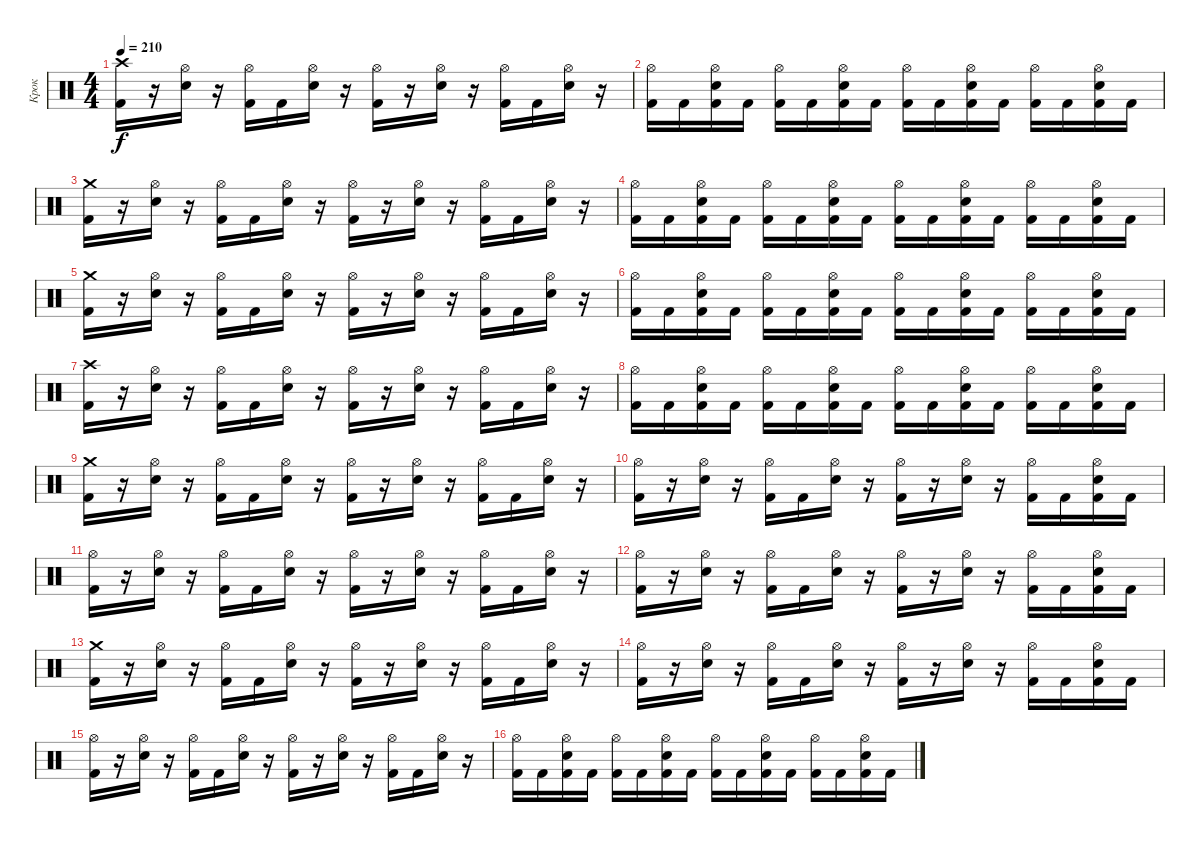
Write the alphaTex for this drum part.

\track ("Крок" "Крок") {instrument percussion}
\staff {score}
\articulation defaults
\ts (4 4)
\tempo 210
\clef neutral
\ks c
("Crash high (hit)" "Kick (hit) 2").16{dy f} r.16 ("Hi-Hat (open)" "Electric Snare (hit)").16 r.16 ("Hi-Hat (open)" "Kick (hit) 2").16 "Kick (hit) 2".16 ("Hi-Hat (open)" "Electric Snare (hit)").16 r.16 ("Hi-Hat (open)" "Kick (hit) 2").16 r.16 ("Hi-Hat (open)" "Electric Snare (hit)").16 r.16 ("Hi-Hat (open)" "Kick (hit) 2").16 "Kick (hit) 2".16 ("Hi-Hat (open)" "Electric Snare (hit)").16 r.16 |
("Hi-Hat (open)" "Kick (hit) 2").16 "Kick (hit) 2".16 ("Hi-Hat (open)" "Electric Snare (hit)" "Kick (hit) 2").16 "Kick (hit) 2".16 ("Hi-Hat (open)" "Kick (hit) 2").16 "Kick (hit) 2".16 ("Hi-Hat (open)" "Electric Snare (hit)" "Kick (hit) 2").16 "Kick (hit) 2".16 ("Hi-Hat (open)" "Kick (hit) 2").16 "Kick (hit) 2".16 ("Hi-Hat (open)" "Electric Snare (hit)" "Kick (hit) 2").16 "Kick (hit) 2".16 ("Hi-Hat (open)" "Kick (hit) 2").16 "Kick (hit) 2".16 ("Hi-Hat (open)" "Electric Snare (hit)" "Kick (hit) 2").16 "Kick (hit) 2".16 |
("Crash medium (hit)" "Kick (hit) 2").16 r.16 ("Hi-Hat (open)" "Electric Snare (hit)").16 r.16 ("Hi-Hat (open)" "Kick (hit) 2").16 "Kick (hit) 2".16 ("Hi-Hat (open)" "Electric Snare (hit)").16 r.16 ("Hi-Hat (open)" "Kick (hit) 2").16 r.16 ("Hi-Hat (open)" "Electric Snare (hit)").16 r.16 ("Hi-Hat (open)" "Kick (hit) 2").16 "Kick (hit) 2".16 ("Hi-Hat (open)" "Electric Snare (hit)").16 r.16 |
("Hi-Hat (open)" "Kick (hit) 2").16 "Kick (hit) 2".16 ("Hi-Hat (open)" "Electric Snare (hit)" "Kick (hit) 2").16 "Kick (hit) 2".16 ("Hi-Hat (open)" "Kick (hit) 2").16 "Kick (hit) 2".16 ("Hi-Hat (open)" "Electric Snare (hit)" "Kick (hit) 2").16 "Kick (hit) 2".16 ("Hi-Hat (open)" "Kick (hit) 2").16 "Kick (hit) 2".16 ("Hi-Hat (open)" "Electric Snare (hit)" "Kick (hit) 2").16 "Kick (hit) 2".16 ("Hi-Hat (open)" "Kick (hit) 2").16 "Kick (hit) 2".16 ("Hi-Hat (open)" "Electric Snare (hit)" "Kick (hit) 2").16 "Kick (hit) 2".16 |
("Crash medium (hit)" "Kick (hit) 2").16 r.16 ("Hi-Hat (open)" "Electric Snare (hit)").16 r.16 ("Hi-Hat (open)" "Kick (hit) 2").16 "Kick (hit) 2".16 ("Hi-Hat (open)" "Electric Snare (hit)").16 r.16 ("Hi-Hat (open)" "Kick (hit) 2").16 r.16 ("Hi-Hat (open)" "Electric Snare (hit)").16 r.16 ("Hi-Hat (open)" "Kick (hit) 2").16 "Kick (hit) 2".16 ("Hi-Hat (open)" "Electric Snare (hit)").16 r.16 |
("Hi-Hat (open)" "Kick (hit) 2").16 "Kick (hit) 2".16 ("Hi-Hat (open)" "Electric Snare (hit)" "Kick (hit) 2").16 "Kick (hit) 2".16 ("Hi-Hat (open)" "Kick (hit) 2").16 "Kick (hit) 2".16 ("Hi-Hat (open)" "Electric Snare (hit)" "Kick (hit) 2").16 "Kick (hit) 2".16 ("Hi-Hat (open)" "Kick (hit) 2").16 "Kick (hit) 2".16 ("Hi-Hat (open)" "Electric Snare (hit)" "Kick (hit) 2").16 "Kick (hit) 2".16 ("Hi-Hat (open)" "Kick (hit) 2").16 "Kick (hit) 2".16 ("Hi-Hat (open)" "Electric Snare (hit)" "Kick (hit) 2").16 "Kick (hit) 2".16 |
("Crash high (hit)" "Kick (hit) 2").16 r.16 ("Hi-Hat (open)" "Electric Snare (hit)").16 r.16 ("Hi-Hat (open)" "Kick (hit) 2").16 "Kick (hit) 2".16 ("Hi-Hat (open)" "Electric Snare (hit)").16 r.16 ("Hi-Hat (open)" "Kick (hit) 2").16 r.16 ("Hi-Hat (open)" "Electric Snare (hit)").16 r.16 ("Hi-Hat (open)" "Kick (hit) 2").16 "Kick (hit) 2".16 ("Hi-Hat (open)" "Electric Snare (hit)").16 r.16 |
("Hi-Hat (open)" "Kick (hit) 2").16 "Kick (hit) 2".16 ("Hi-Hat (open)" "Electric Snare (hit)" "Kick (hit) 2").16 "Kick (hit) 2".16 ("Hi-Hat (open)" "Kick (hit) 2").16 "Kick (hit) 2".16 ("Hi-Hat (open)" "Electric Snare (hit)" "Kick (hit) 2").16 "Kick (hit) 2".16 ("Hi-Hat (open)" "Kick (hit) 2").16 "Kick (hit) 2".16 ("Hi-Hat (open)" "Electric Snare (hit)" "Kick (hit) 2").16 "Kick (hit) 2".16 ("Hi-Hat (open)" "Kick (hit) 2").16 "Kick (hit) 2".16 ("Hi-Hat (open)" "Electric Snare (hit)" "Kick (hit) 2").16 "Kick (hit) 2".16 |
("Crash medium (hit)" "Kick (hit) 2").16 r.16 ("Hi-Hat (open)" "Electric Snare (hit)").16 r.16 ("Hi-Hat (open)" "Kick (hit) 2").16 "Kick (hit) 2".16 ("Hi-Hat (open)" "Electric Snare (hit)").16 r.16 ("Hi-Hat (open)" "Kick (hit) 2").16 r.16 ("Hi-Hat (open)" "Electric Snare (hit)").16 r.16 ("Hi-Hat (open)" "Kick (hit) 2").16 "Kick (hit) 2".16 ("Hi-Hat (open)" "Electric Snare (hit)").16 r.16 |
("Hi-Hat (open)" "Kick (hit) 2").16 r.16 ("Hi-Hat (open)" "Electric Snare (hit)").16 r.16 ("Hi-Hat (open)" "Kick (hit) 2").16 "Kick (hit) 2".16 ("Hi-Hat (open)" "Electric Snare (hit)").16 r.16 ("Hi-Hat (open)" "Kick (hit) 2").16 r.16 ("Hi-Hat (open)" "Electric Snare (hit)").16 r.16 ("Hi-Hat (open)" "Kick (hit) 2").16 "Kick (hit) 2".16 ("Hi-Hat (open)" "Electric Snare (hit)" "Kick (hit) 2").16 "Kick (hit) 2".16 |
("Hi-Hat (open)" "Kick (hit) 2").16 r.16 ("Hi-Hat (open)" "Electric Snare (hit)").16 r.16 ("Hi-Hat (open)" "Kick (hit) 2").16 "Kick (hit) 2".16 ("Hi-Hat (open)" "Electric Snare (hit)").16 r.16 ("Hi-Hat (open)" "Kick (hit) 2").16 r.16 ("Hi-Hat (open)" "Electric Snare (hit)").16 r.16 ("Hi-Hat (open)" "Kick (hit) 2").16 "Kick (hit) 2".16 ("Hi-Hat (open)" "Electric Snare (hit)").16 r.16 |
("Hi-Hat (open)" "Kick (hit) 2").16 r.16 ("Hi-Hat (open)" "Electric Snare (hit)").16 r.16 ("Hi-Hat (open)" "Kick (hit) 2").16 "Kick (hit) 2".16 ("Hi-Hat (open)" "Electric Snare (hit)").16 r.16 ("Hi-Hat (open)" "Kick (hit) 2").16 r.16 ("Hi-Hat (open)" "Electric Snare (hit)").16 r.16 ("Hi-Hat (open)" "Kick (hit) 2").16 "Kick (hit) 2".16 ("Hi-Hat (open)" "Electric Snare (hit)" "Kick (hit) 2").16 "Kick (hit) 2".16 |
("Crash medium (hit)" "Kick (hit) 2").16 r.16 ("Hi-Hat (open)" "Electric Snare (hit)").16 r.16 ("Hi-Hat (open)" "Kick (hit) 2").16 "Kick (hit) 2".16 ("Hi-Hat (open)" "Electric Snare (hit)").16 r.16 ("Hi-Hat (open)" "Kick (hit) 2").16 r.16 ("Hi-Hat (open)" "Electric Snare (hit)").16 r.16 ("Hi-Hat (open)" "Kick (hit) 2").16 "Kick (hit) 2".16 ("Hi-Hat (open)" "Electric Snare (hit)").16 r.16 |
("Hi-Hat (open)" "Kick (hit) 2").16 r.16 ("Hi-Hat (open)" "Electric Snare (hit)").16 r.16 ("Hi-Hat (open)" "Kick (hit) 2").16 "Kick (hit) 2".16 ("Hi-Hat (open)" "Electric Snare (hit)").16 r.16 ("Hi-Hat (open)" "Kick (hit) 2").16 r.16 ("Hi-Hat (open)" "Electric Snare (hit)").16 r.16 ("Hi-Hat (open)" "Kick (hit) 2").16 "Kick (hit) 2".16 ("Hi-Hat (open)" "Electric Snare (hit)" "Kick (hit) 2").16 "Kick (hit) 2".16 |
("Hi-Hat (open)" "Kick (hit) 2").16 r.16 ("Hi-Hat (open)" "Electric Snare (hit)").16 r.16 ("Hi-Hat (open)" "Kick (hit) 2").16 "Kick (hit) 2".16 ("Hi-Hat (open)" "Electric Snare (hit)").16 r.16 ("Hi-Hat (open)" "Kick (hit) 2").16 r.16 ("Hi-Hat (open)" "Electric Snare (hit)").16 r.16 ("Hi-Hat (open)" "Kick (hit) 2").16 "Kick (hit) 2".16 ("Hi-Hat (open)" "Electric Snare (hit)").16 r.16 |
("Hi-Hat (open)" "Kick (hit) 2").16 "Kick (hit) 2".16 ("Hi-Hat (open)" "Electric Snare (hit)" "Kick (hit) 2").16 "Kick (hit) 2".16 ("Hi-Hat (open)" "Kick (hit) 2").16 "Kick (hit) 2".16 ("Hi-Hat (open)" "Electric Snare (hit)" "Kick (hit) 2").16 "Kick (hit) 2".16 ("Hi-Hat (open)" "Kick (hit) 2").16 "Kick (hit) 2".16 ("Hi-Hat (open)" "Electric Snare (hit)" "Kick (hit) 2").16 "Kick (hit) 2".16 ("Hi-Hat (open)" "Kick (hit) 2").16 "Kick (hit) 2".16 ("Hi-Hat (open)" "Electric Snare (hit)" "Kick (hit) 2").16 "Kick (hit) 2".16
